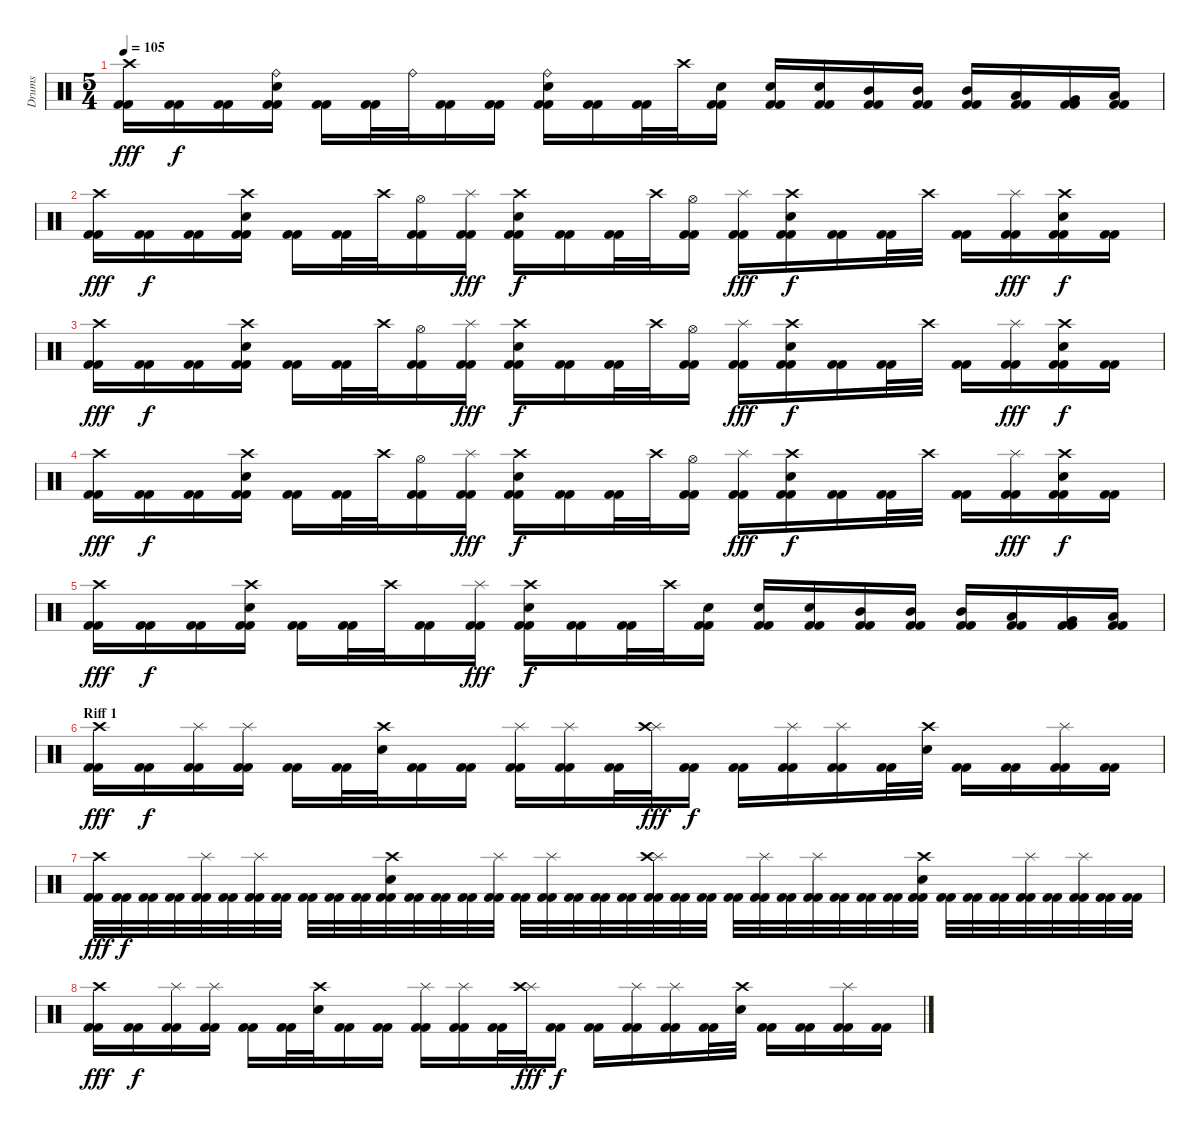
\track ("Drums" "Drums") {instrument percussion}
\staff {score}
\articulation defaults
\ts (5 4)
\tempo 105
\clef neutral
\ks c
("Crash high (hit)" "Kick (hit) 2" "Kick (hit) 2").16{dy fff} ("Kick (hit) 2" "Kick (hit) 2").16{dy f} ("Kick (hit) 2" "Kick (hit) 2").16 ("Ride (bell)" "Electric Snare (hit)" "Kick (hit) 2" "Kick (hit) 2").16 ("Kick (hit) 2" "Kick (hit) 2").16 ("Kick (hit) 2" "Kick (hit) 2").32 "Ride (bell)".32 ("Kick (hit) 2" "Kick (hit) 2").16 ("Kick (hit) 2" "Kick (hit) 2").16 ("Ride (bell)" "Electric Snare (hit)" "Kick (hit) 2" "Kick (hit) 2").16 ("Kick (hit) 2" "Kick (hit) 2").16 ("Kick (hit) 2" "Kick (hit) 2").32 "Crash high (hit)".32 ("Electric Snare (hit)" "Kick (hit) 2" "Kick (hit) 2").16 ("Electric Snare (hit)" "Kick (hit) 2" "Kick (hit) 2").16 ("Electric Snare (hit)" "Kick (hit) 2" "Kick (hit) 2").16 ("Mid Tom (hit)" "Kick (hit) 2" "Kick (hit) 2").16 ("Mid Tom (hit)" "Kick (hit) 2" "Kick (hit) 2").16 ("Mid Tom (hit)" "Kick (hit) 2" "Kick (hit) 2").16 ("Low Tom (hit)" "Kick (hit) 2" "Kick (hit) 2").16 ("Very Low Tom (hit)" "Kick (hit) 2" "Kick (hit) 2").16 ("Low Floor Tom (hit)" "Kick (hit) 2" "Kick (hit) 2").16 |
("Crash high (hit)" "Kick (hit) 2" "Kick (hit) 2").16{dy fff} ("Kick (hit) 2" "Kick (hit) 2").16{dy f} ("Kick (hit) 2" "Kick (hit) 2").16 ("Crash high (hit)" "Electric Snare (hit)" "Kick (hit) 2" "Kick (hit) 2").16 ("Kick (hit) 2" "Kick (hit) 2").16 ("Kick (hit) 2" "Kick (hit) 2").32 "Crash high (hit)".32 ("Hi-Hat (open)" "Kick (hit) 2" "Kick (hit) 2").16 ("Splash (hit)" "Kick (hit) 2" "Kick (hit) 2").16{dy fff} ("Crash high (hit)" "Electric Snare (hit)" "Kick (hit) 2" "Kick (hit) 2").16{dy f} ("Kick (hit) 2" "Kick (hit) 2").16 ("Kick (hit) 2" "Kick (hit) 2").32 "Crash high (hit)".32 ("Hi-Hat (open)" "Kick (hit) 2" "Kick (hit) 2").16 ("Splash (hit)" "Kick (hit) 2" "Kick (hit) 2").16{dy fff} ("Crash high (hit)" "Electric Snare (hit)" "Kick (hit) 2" "Kick (hit) 2").16{dy f} ("Kick (hit) 2" "Kick (hit) 2").16 ("Kick (hit) 2" "Kick (hit) 2").32 "Crash high (hit)".32 ("Kick (hit) 2" "Kick (hit) 2").16 ("Splash (hit)" "Kick (hit) 2" "Kick (hit) 2").16{dy fff} ("Crash high (hit)" "Electric Snare (hit)" "Kick (hit) 2" "Kick (hit) 2").16{dy f} ("Kick (hit) 2" "Kick (hit) 2").16 |
("Crash high (hit)" "Kick (hit) 2" "Kick (hit) 2").16{dy fff} ("Kick (hit) 2" "Kick (hit) 2").16{dy f} ("Kick (hit) 2" "Kick (hit) 2").16 ("Crash high (hit)" "Electric Snare (hit)" "Kick (hit) 2" "Kick (hit) 2").16 ("Kick (hit) 2" "Kick (hit) 2").16 ("Kick (hit) 2" "Kick (hit) 2").32 "Crash high (hit)".32 ("Hi-Hat (open)" "Kick (hit) 2" "Kick (hit) 2").16 ("Splash (hit)" "Kick (hit) 2" "Kick (hit) 2").16{dy fff} ("Crash high (hit)" "Electric Snare (hit)" "Kick (hit) 2" "Kick (hit) 2").16{dy f} ("Kick (hit) 2" "Kick (hit) 2").16 ("Kick (hit) 2" "Kick (hit) 2").32 "Crash high (hit)".32 ("Hi-Hat (open)" "Kick (hit) 2" "Kick (hit) 2").16 ("Splash (hit)" "Kick (hit) 2" "Kick (hit) 2").16{dy fff} ("Crash high (hit)" "Electric Snare (hit)" "Kick (hit) 2" "Kick (hit) 2").16{dy f} ("Kick (hit) 2" "Kick (hit) 2").16 ("Kick (hit) 2" "Kick (hit) 2").32 "Crash high (hit)".32 ("Kick (hit) 2" "Kick (hit) 2").16 ("Splash (hit)" "Kick (hit) 2" "Kick (hit) 2").16{dy fff} ("Crash high (hit)" "Electric Snare (hit)" "Kick (hit) 2" "Kick (hit) 2").16{dy f} ("Kick (hit) 2" "Kick (hit) 2").16 |
("Crash high (hit)" "Kick (hit) 2" "Kick (hit) 2").16{dy fff} ("Kick (hit) 2" "Kick (hit) 2").16{dy f} ("Kick (hit) 2" "Kick (hit) 2").16 ("Crash high (hit)" "Electric Snare (hit)" "Kick (hit) 2" "Kick (hit) 2").16 ("Kick (hit) 2" "Kick (hit) 2").16 ("Kick (hit) 2" "Kick (hit) 2").32 "Crash high (hit)".32 ("Hi-Hat (open)" "Kick (hit) 2" "Kick (hit) 2").16 ("Splash (hit)" "Kick (hit) 2" "Kick (hit) 2").16{dy fff} ("Crash high (hit)" "Electric Snare (hit)" "Kick (hit) 2" "Kick (hit) 2").16{dy f} ("Kick (hit) 2" "Kick (hit) 2").16 ("Kick (hit) 2" "Kick (hit) 2").32 "Crash high (hit)".32 ("Hi-Hat (open)" "Kick (hit) 2" "Kick (hit) 2").16 ("Splash (hit)" "Kick (hit) 2" "Kick (hit) 2").16{dy fff} ("Crash high (hit)" "Electric Snare (hit)" "Kick (hit) 2" "Kick (hit) 2").16{dy f} ("Kick (hit) 2" "Kick (hit) 2").16 ("Kick (hit) 2" "Kick (hit) 2").32 "Crash high (hit)".32 ("Kick (hit) 2" "Kick (hit) 2").16 ("Splash (hit)" "Kick (hit) 2" "Kick (hit) 2").16{dy fff} ("Crash high (hit)" "Electric Snare (hit)" "Kick (hit) 2" "Kick (hit) 2").16{dy f} ("Kick (hit) 2" "Kick (hit) 2").16 |
("Crash high (hit)" "Kick (hit) 2" "Kick (hit) 2").16{dy fff} ("Kick (hit) 2" "Kick (hit) 2").16{dy f} ("Kick (hit) 2" "Kick (hit) 2").16 ("Crash high (hit)" "Electric Snare (hit)" "Kick (hit) 2" "Kick (hit) 2").16 ("Kick (hit) 2" "Kick (hit) 2").16 ("Kick (hit) 2" "Kick (hit) 2").32 "Crash high (hit)".32 ("Kick (hit) 2" "Kick (hit) 2").16 ("Splash (hit)" "Kick (hit) 2" "Kick (hit) 2").16{dy fff} ("Crash high (hit)" "Electric Snare (hit)" "Kick (hit) 2" "Kick (hit) 2").16{dy f} ("Kick (hit) 2" "Kick (hit) 2").16 ("Kick (hit) 2" "Kick (hit) 2").32 "Crash high (hit)".32 ("Electric Snare (hit)" "Kick (hit) 2" "Kick (hit) 2").16 ("Electric Snare (hit)" "Kick (hit) 2" "Kick (hit) 2").16 ("Electric Snare (hit)" "Kick (hit) 2" "Kick (hit) 2").16 ("Mid Tom (hit)" "Kick (hit) 2" "Kick (hit) 2").16 ("Mid Tom (hit)" "Kick (hit) 2" "Kick (hit) 2").16 ("Mid Tom (hit)" "Kick (hit) 2" "Kick (hit) 2").16 ("Low Tom (hit)" "Kick (hit) 2" "Kick (hit) 2").16 ("Very Low Tom (hit)" "Kick (hit) 2" "Kick (hit) 2").16 ("Low Floor Tom (hit)" "Kick (hit) 2" "Kick (hit) 2").16 |
\section ("" "Riff 1")
("Crash high (hit)" "Kick (hit) 2" "Kick (hit) 2").16{dy fff} ("Kick (hit) 2" "Kick (hit) 2").16{dy f} ("Splash (hit)" "Kick (hit) 2" "Kick (hit) 2").16 ("Splash (hit)" "Kick (hit) 2" "Kick (hit) 2").16 ("Kick (hit) 2" "Kick (hit) 2").16 ("Kick (hit) 2" "Kick (hit) 2").32 ("Crash high (hit)" "Electric Snare (hit)").32 ("Kick (hit) 2" "Kick (hit) 2").16 ("Kick (hit) 2" "Kick (hit) 2").16 ("Splash (hit)" "Kick (hit) 2" "Kick (hit) 2").16 ("Splash (hit)" "Kick (hit) 2" "Kick (hit) 2").16 ("Kick (hit) 2" "Kick (hit) 2").32 ("Splash (hit)" "Crash high (hit)").32{dy fff} ("Kick (hit) 2" "Kick (hit) 2").16{dy f} ("Kick (hit) 2" "Kick (hit) 2").16 ("Splash (hit)" "Kick (hit) 2" "Kick (hit) 2").16 ("Splash (hit)" "Kick (hit) 2" "Kick (hit) 2").16 ("Kick (hit) 2" "Kick (hit) 2").32 ("Crash high (hit)" "Electric Snare (hit)").32 ("Kick (hit) 2" "Kick (hit) 2").16 ("Kick (hit) 2" "Kick (hit) 2").16 ("Splash (hit)" "Kick (hit) 2" "Kick (hit) 2").16 ("Kick (hit) 2" "Kick (hit) 2").16 |
("Crash high (hit)" "Kick (hit) 2" "Kick (hit) 2").32{dy fff} ("Kick (hit) 2" "Kick (hit) 2").32{dy f} ("Kick (hit) 2" "Kick (hit) 2").32 ("Kick (hit) 2" "Kick (hit) 2").32 ("Splash (hit)" "Kick (hit) 2" "Kick (hit) 2").32 ("Kick (hit) 2" "Kick (hit) 2").32 ("Splash (hit)" "Kick (hit) 2" "Kick (hit) 2").32 ("Kick (hit) 2" "Kick (hit) 2").32 ("Kick (hit) 2" "Kick (hit) 2").32 ("Kick (hit) 2" "Kick (hit) 2").32 ("Kick (hit) 2" "Kick (hit) 2").32 ("Crash high (hit)" "Electric Snare (hit)" "Kick (hit) 2" "Kick (hit) 2").32 ("Kick (hit) 2" "Kick (hit) 2").32 ("Kick (hit) 2" "Kick (hit) 2").32 ("Kick (hit) 2" "Kick (hit) 2").32 ("Splash (hit)" "Kick (hit) 2" "Kick (hit) 2").32 ("Kick (hit) 2" "Kick (hit) 2").32 ("Splash (hit)" "Kick (hit) 2" "Kick (hit) 2").32 ("Kick (hit) 2" "Kick (hit) 2").32 ("Kick (hit) 2" "Kick (hit) 2").32 ("Kick (hit) 2" "Kick (hit) 2").32 ("Splash (hit)" "Crash high (hit)" "Kick (hit) 2" "Kick (hit) 2").32 ("Kick (hit) 2" "Kick (hit) 2").32 ("Kick (hit) 2" "Kick (hit) 2").32 ("Kick (hit) 2" "Kick (hit) 2").32 ("Splash (hit)" "Kick (hit) 2" "Kick (hit) 2").32 ("Kick (hit) 2" "Kick (hit) 2").32 ("Splash (hit)" "Kick (hit) 2" "Kick (hit) 2").32 ("Kick (hit) 2" "Kick (hit) 2").32 ("Kick (hit) 2" "Kick (hit) 2").32 ("Kick (hit) 2" "Kick (hit) 2").32 ("Crash high (hit)" "Electric Snare (hit)" "Kick (hit) 2" "Kick (hit) 2").32 ("Kick (hit) 2" "Kick (hit) 2").32 ("Kick (hit) 2" "Kick (hit) 2").32 ("Kick (hit) 2" "Kick (hit) 2").32 ("Splash (hit)" "Kick (hit) 2" "Kick (hit) 2").32 ("Kick (hit) 2" "Kick (hit) 2").32 ("Splash (hit)" "Kick (hit) 2" "Kick (hit) 2").32 ("Kick (hit) 2" "Kick (hit) 2").32 ("Kick (hit) 2" "Kick (hit) 2").32 |
("Crash high (hit)" "Kick (hit) 2" "Kick (hit) 2").16{dy fff} ("Kick (hit) 2" "Kick (hit) 2").16{dy f} ("Splash (hit)" "Kick (hit) 2" "Kick (hit) 2").16 ("Splash (hit)" "Kick (hit) 2" "Kick (hit) 2").16 ("Kick (hit) 2" "Kick (hit) 2").16 ("Kick (hit) 2" "Kick (hit) 2").32 ("Crash high (hit)" "Electric Snare (hit)").32 ("Kick (hit) 2" "Kick (hit) 2").16 ("Kick (hit) 2" "Kick (hit) 2").16 ("Splash (hit)" "Kick (hit) 2" "Kick (hit) 2").16 ("Splash (hit)" "Kick (hit) 2" "Kick (hit) 2").16 ("Kick (hit) 2" "Kick (hit) 2").32 ("Splash (hit)" "Crash high (hit)").32{dy fff} ("Kick (hit) 2" "Kick (hit) 2").16{dy f} ("Kick (hit) 2" "Kick (hit) 2").16 ("Splash (hit)" "Kick (hit) 2" "Kick (hit) 2").16 ("Splash (hit)" "Kick (hit) 2" "Kick (hit) 2").16 ("Kick (hit) 2" "Kick (hit) 2").32 ("Crash high (hit)" "Electric Snare (hit)").32 ("Kick (hit) 2" "Kick (hit) 2").16 ("Kick (hit) 2" "Kick (hit) 2").16 ("Splash (hit)" "Kick (hit) 2" "Kick (hit) 2").16 ("Kick (hit) 2" "Kick (hit) 2").16
